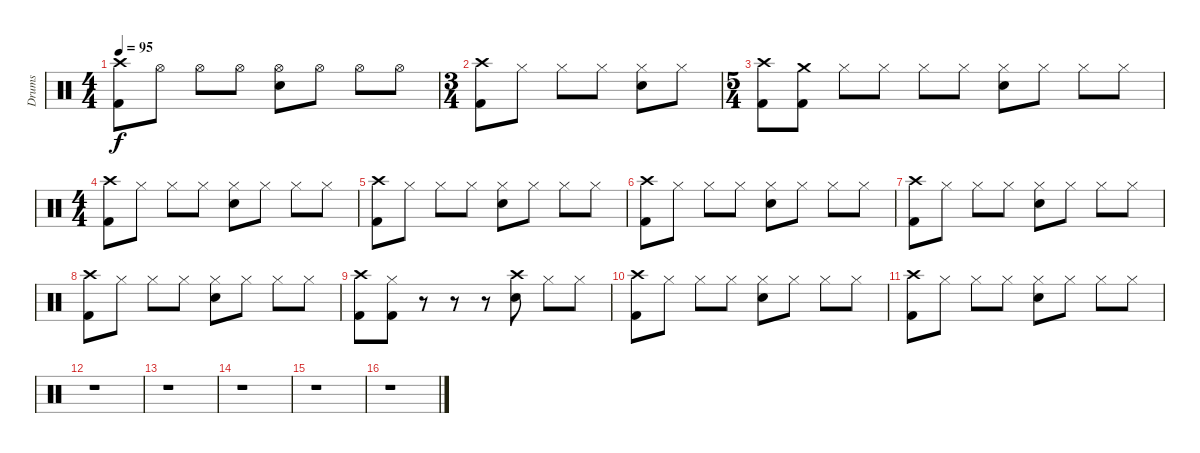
\track ("Drums" "Drums") {instrument percussion}
\staff {score}
\articulation defaults
\ts (4 4)
\tempo 95
\clef neutral
\ks c
("Crash high (hit)" "Kick (hit) 2").8{dy f} "Hi-Hat (open)".8 "Hi-Hat (open)".8 "Hi-Hat (open)".8 ("Snare (hit) 2" "Hi-Hat (open)").8 "Hi-Hat (open)".8 "Hi-Hat (open)".8 "Hi-Hat (open)".8 |
\ts (3 4)
("Crash high (hit)" "Kick (hit) 2").8 "Hi-Hat (closed)".8 "Hi-Hat (closed)".8 "Hi-Hat (closed)".8 ("Snare (hit) 2" "Hi-Hat (closed)").8 "Hi-Hat (closed)".8 |
\ts (5 4)
("Crash high (hit)" "Kick (hit) 2").8 ("Crash medium (hit)" "Kick (hit) 2").8 "Hi-Hat (closed)".8 "Hi-Hat (closed)".8 "Hi-Hat (closed)".8 "Hi-Hat (closed)".8 ("Snare (hit) 2" "Hi-Hat (closed)").8 "Hi-Hat (closed)".8 "Hi-Hat (closed)".8 "Hi-Hat (closed)".8 |
\ts (4 4)
("Crash high (hit)" "Kick (hit) 2").8 "Hi-Hat (closed)".8 "Hi-Hat (closed)".8 "Hi-Hat (closed)".8 ("Snare (hit) 2" "Hi-Hat (closed)").8 "Hi-Hat (closed)".8 "Hi-Hat (closed)".8 "Hi-Hat (closed)".8 |
("Crash high (hit)" "Kick (hit) 2").8 "Hi-Hat (closed)".8 "Hi-Hat (closed)".8 "Hi-Hat (closed)".8 ("Snare (hit) 2" "Hi-Hat (closed)").8 "Hi-Hat (closed)".8 "Hi-Hat (closed)".8 "Hi-Hat (closed)".8 |
("Crash high (hit)" "Kick (hit) 2").8 "Hi-Hat (closed)".8 "Hi-Hat (closed)".8 "Hi-Hat (closed)".8 ("Snare (hit) 2" "Hi-Hat (closed)").8 "Hi-Hat (closed)".8 "Hi-Hat (closed)".8 "Hi-Hat (closed)".8 |
("Crash high (hit)" "Kick (hit) 2").8 "Hi-Hat (closed)".8 "Hi-Hat (closed)".8 "Hi-Hat (closed)".8 ("Snare (hit) 2" "Hi-Hat (closed)").8 "Hi-Hat (closed)".8 "Hi-Hat (closed)".8 "Hi-Hat (closed)".8 |
("Crash high (hit)" "Kick (hit) 2").8 "Hi-Hat (closed)".8 "Hi-Hat (closed)".8 "Hi-Hat (closed)".8 ("Snare (hit) 2" "Hi-Hat (closed)").8 "Hi-Hat (closed)".8 "Hi-Hat (closed)".8 "Hi-Hat (closed)".8 |
("Crash high (hit)" "Kick (hit) 2").8 ("Hi-Hat (closed)" "Kick (hit) 2").8 r.8 r.8 r.8 ("Snare (hit) 2" "Crash high (hit)").8 "Hi-Hat (closed)".8 "Hi-Hat (closed)".8 |
("Crash high (hit)" "Kick (hit) 2").8 "Hi-Hat (closed)".8 "Hi-Hat (closed)".8 "Hi-Hat (closed)".8 ("Snare (hit) 2" "Hi-Hat (closed)").8 "Hi-Hat (closed)".8 "Hi-Hat (closed)".8 "Hi-Hat (closed)".8 |
("Crash high (hit)" "Kick (hit) 2").8 "Hi-Hat (closed)".8 "Hi-Hat (closed)".8 "Hi-Hat (closed)".8 ("Snare (hit) 2" "Hi-Hat (closed)").8 "Hi-Hat (closed)".8 "Hi-Hat (closed)".8 "Hi-Hat (closed)".8 |
r.1 |
r.1 |
r.1 |
r.1 |
r.1
